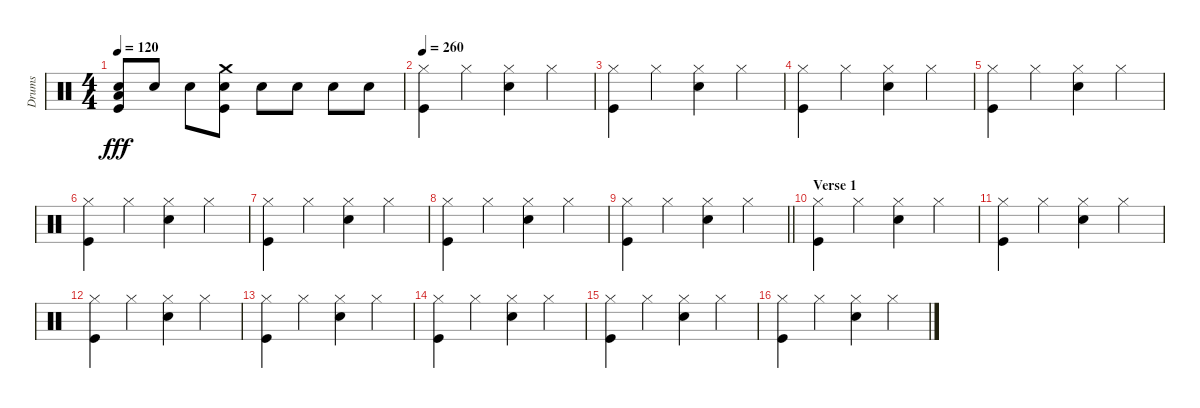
\track ("Drums" "Drums") {instrument percussion}
\staff {score}
\articulation defaults
\ts (4 4)
\tempo 120
\clef neutral
\ks c
("Snare (hit) 2" "Low Floor Tom (hit)" "Kick (hit)").8{dy fff} "Snare (hit) 2".8 "Snare (hit) 2".8 ("Snare (hit) 2" "Crash medium (hit)" "Kick (hit)").8 "Snare (hit) 2".8 "Snare (hit) 2".8 "Snare (hit) 2".8 "Snare (hit) 2".8 |
\tempo 260
("Hi-Hat (closed)" "Kick (hit)").4 "Hi-Hat (closed)".4 ("Hi-Hat (closed)" "Snare (hit) 2").4 "Hi-Hat (closed)".4 |
("Hi-Hat (closed)" "Kick (hit)").4 "Hi-Hat (closed)".4 ("Hi-Hat (closed)" "Snare (hit) 2").4 "Hi-Hat (closed)".4 |
("Hi-Hat (closed)" "Kick (hit)").4 "Hi-Hat (closed)".4 ("Hi-Hat (closed)" "Snare (hit) 2").4 "Hi-Hat (closed)".4 |
("Hi-Hat (closed)" "Kick (hit)").4 "Hi-Hat (closed)".4 ("Hi-Hat (closed)" "Snare (hit) 2").4 "Hi-Hat (closed)".4 |
("Hi-Hat (closed)" "Kick (hit)").4 "Hi-Hat (closed)".4 ("Hi-Hat (closed)" "Snare (hit) 2").4 "Hi-Hat (closed)".4 |
("Hi-Hat (closed)" "Kick (hit)").4 "Hi-Hat (closed)".4 ("Hi-Hat (closed)" "Snare (hit) 2").4 "Hi-Hat (closed)".4 |
("Hi-Hat (closed)" "Kick (hit)").4 "Hi-Hat (closed)".4 ("Hi-Hat (closed)" "Snare (hit) 2").4 "Hi-Hat (closed)".4 |
\barLineRight lightlight
("Hi-Hat (closed)" "Kick (hit)").4 "Hi-Hat (closed)".4 ("Hi-Hat (closed)" "Snare (hit) 2").4 "Hi-Hat (closed)".4 |
\section ("" "Verse 1")
("Hi-Hat (closed)" "Kick (hit)").4 "Hi-Hat (closed)".4 ("Hi-Hat (closed)" "Snare (hit) 2").4 "Hi-Hat (closed)".4 |
("Hi-Hat (closed)" "Kick (hit)").4 "Hi-Hat (closed)".4 ("Hi-Hat (closed)" "Snare (hit) 2").4 "Hi-Hat (closed)".4 |
("Hi-Hat (closed)" "Kick (hit)").4 "Hi-Hat (closed)".4 ("Hi-Hat (closed)" "Snare (hit) 2").4 "Hi-Hat (closed)".4 |
("Hi-Hat (closed)" "Kick (hit)").4 "Hi-Hat (closed)".4 ("Hi-Hat (closed)" "Snare (hit) 2").4 "Hi-Hat (closed)".4 |
("Hi-Hat (closed)" "Kick (hit)").4 "Hi-Hat (closed)".4 ("Hi-Hat (closed)" "Snare (hit) 2").4 "Hi-Hat (closed)".4 |
("Hi-Hat (closed)" "Kick (hit)").4 "Hi-Hat (closed)".4 ("Hi-Hat (closed)" "Snare (hit) 2").4 "Hi-Hat (closed)".4 |
("Hi-Hat (closed)" "Kick (hit)").4 "Hi-Hat (closed)".4 ("Hi-Hat (closed)" "Snare (hit) 2").4 "Hi-Hat (closed)".4
